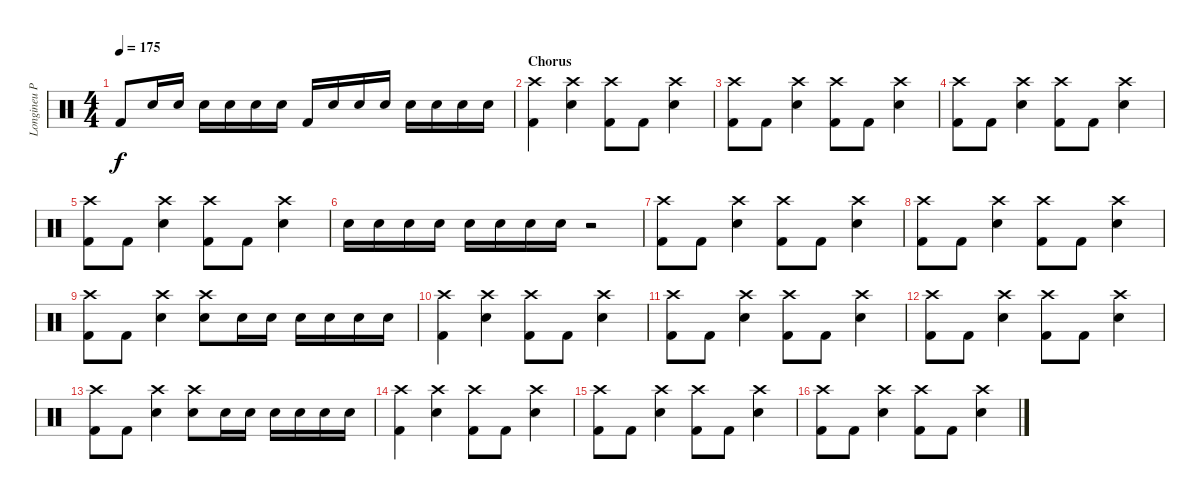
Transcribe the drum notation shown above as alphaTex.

\track ("Longineu Parsons III Drums" "Longineu P") {instrument percussion}
\staff {score}
\articulation defaults
\ts (4 4)
\tempo 175
\clef neutral
\ks c "Kick (hit) 2".8{dy f} "Snare (hit) 2".16 "Snare (hit) 2".16 "Snare (hit) 2".16 "Snare (hit) 2".16 "Snare (hit) 2".16 "Snare (hit) 2".16 "Kick (hit) 2".16 "Snare (hit) 2".16 "Snare (hit) 2".16 "Snare (hit) 2".16 "Snare (hit) 2".16 "Snare (hit) 2".16 "Snare (hit) 2".16 "Snare (hit) 2".16
|
\section ("" "Chorus")
("Kick (hit) 2" "Crash high (hit)").4 ("Snare (hit) 2" "Crash high (hit)").4 ("Kick (hit) 2" "Crash high (hit)").8 "Kick (hit) 2".8 ("Snare (hit) 2" "Crash high (hit)").4 |
("Kick (hit) 2" "Crash high (hit)").8 "Kick (hit) 2".8 ("Snare (hit) 2" "Crash high (hit)").4 ("Kick (hit) 2" "Crash high (hit)").8 "Kick (hit) 2".8 ("Snare (hit) 2" "Crash high (hit)").4 |
("Kick (hit) 2" "Crash high (hit)").8 "Kick (hit) 2".8 ("Snare (hit) 2" "Crash high (hit)").4 ("Kick (hit) 2" "Crash high (hit)").8 "Kick (hit) 2".8 ("Snare (hit) 2" "Crash high (hit)").4 |
("Kick (hit) 2" "Crash high (hit)").8 "Kick (hit) 2".8 ("Snare (hit) 2" "Crash high (hit)").4 ("Kick (hit) 2" "Crash high (hit)").8 "Kick (hit) 2".8 ("Snare (hit) 2" "Crash high (hit)").4 |
"Snare (hit) 2".16 "Snare (hit) 2".16 "Snare (hit) 2".16 "Snare (hit) 2".16 "Snare (hit) 2".16 "Snare (hit) 2".16 "Snare (hit) 2".16 "Snare (hit) 2".16 r.2 |
("Kick (hit) 2" "Crash high (hit)").8 "Kick (hit) 2".8 ("Snare (hit) 2" "Crash high (hit)").4 ("Kick (hit) 2" "Crash high (hit)").8 "Kick (hit) 2".8 ("Snare (hit) 2" "Crash high (hit)").4 |
("Kick (hit) 2" "Crash high (hit)").8 "Kick (hit) 2".8 ("Snare (hit) 2" "Crash high (hit)").4 ("Kick (hit) 2" "Crash high (hit)").8 "Kick (hit) 2".8 ("Snare (hit) 2" "Crash high (hit)").4 |
("Kick (hit) 2" "Crash high (hit)").8 "Kick (hit) 2".8 ("Snare (hit) 2" "Crash high (hit)").4 ("Crash high (hit)" "Snare (hit) 2").8 "Snare (hit) 2".16 "Snare (hit) 2".16 "Snare (hit) 2".16 "Snare (hit) 2".16 "Snare (hit) 2".16 "Snare (hit) 2".16 |
("Kick (hit) 2" "Crash high (hit)").4 ("Snare (hit) 2" "Crash high (hit)").4 ("Kick (hit) 2" "Crash high (hit)").8 "Kick (hit) 2".8 ("Snare (hit) 2" "Crash high (hit)").4 |
("Kick (hit) 2" "Crash high (hit)").8 "Kick (hit) 2".8 ("Snare (hit) 2" "Crash high (hit)").4 ("Kick (hit) 2" "Crash high (hit)").8 "Kick (hit) 2".8 ("Snare (hit) 2" "Crash high (hit)").4 |
("Kick (hit) 2" "Crash high (hit)").8 "Kick (hit) 2".8 ("Snare (hit) 2" "Crash high (hit)").4 ("Kick (hit) 2" "Crash high (hit)").8 "Kick (hit) 2".8 ("Snare (hit) 2" "Crash high (hit)").4 |
("Kick (hit) 2" "Crash high (hit)").8 "Kick (hit) 2".8 ("Snare (hit) 2" "Crash high (hit)").4 ("Crash high (hit)" "Snare (hit) 2").8 "Snare (hit) 2".16 "Snare (hit) 2".16 "Snare (hit) 2".16 "Snare (hit) 2".16 "Snare (hit) 2".16 "Snare (hit) 2".16 |
("Kick (hit) 2" "Crash high (hit)").4 ("Snare (hit) 2" "Crash high (hit)").4 ("Kick (hit) 2" "Crash high (hit)").8 "Kick (hit) 2".8 ("Snare (hit) 2" "Crash high (hit)").4 |
("Kick (hit) 2" "Crash high (hit)").8 "Kick (hit) 2".8 ("Snare (hit) 2" "Crash high (hit)").4 ("Kick (hit) 2" "Crash high (hit)").8 "Kick (hit) 2".8 ("Snare (hit) 2" "Crash high (hit)").4 |
("Kick (hit) 2" "Crash high (hit)").8 "Kick (hit) 2".8 ("Snare (hit) 2" "Crash high (hit)").4 ("Kick (hit) 2" "Crash high (hit)").8 "Kick (hit) 2".8 ("Snare (hit) 2" "Crash high (hit)").4
